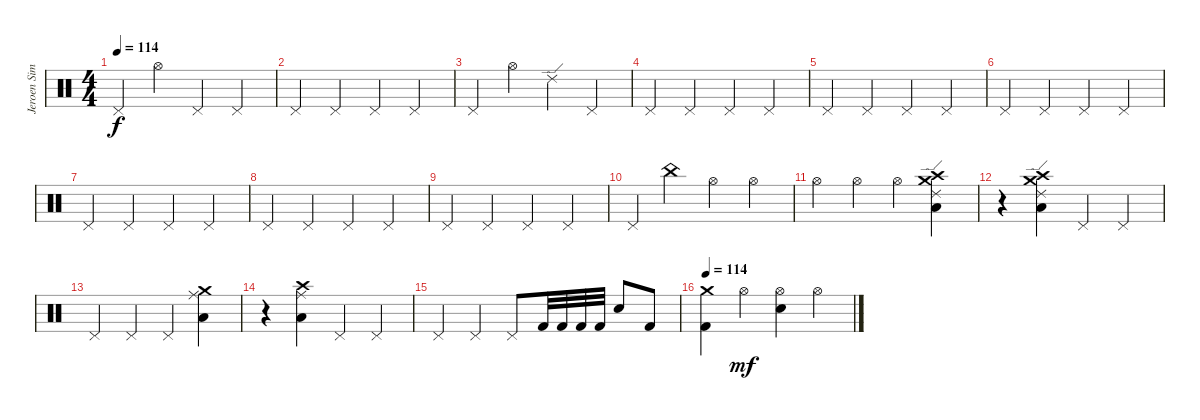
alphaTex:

\track ("Jeroen Simons" "Jeroen Sim") {instrument percussion}
\staff {score}
\articulation defaults
\ts (4 4)
\tempo 114
\clef neutral
\ks c "Pedal Hi-Hat (hit)".4{dy f} "Hi-Hat (open)".4 "Pedal Hi-Hat (hit)".4 "Pedal Hi-Hat (hit)".4
|
"Pedal Hi-Hat (hit)".4 "Pedal Hi-Hat (hit)".4 "Pedal Hi-Hat (hit)".4 "Pedal Hi-Hat (hit)".4 |
"Pedal Hi-Hat (hit)".4 "Hi-Hat (open)".4 "Ride (edge) 2".4 "Pedal Hi-Hat (hit)".4 |
"Pedal Hi-Hat (hit)".4 "Pedal Hi-Hat (hit)".4 "Pedal Hi-Hat (hit)".4 "Pedal Hi-Hat (hit)".4 |
"Pedal Hi-Hat (hit)".4 "Pedal Hi-Hat (hit)".4 "Pedal Hi-Hat (hit)".4 "Pedal Hi-Hat (hit)".4 |
"Pedal Hi-Hat (hit)".4 "Pedal Hi-Hat (hit)".4 "Pedal Hi-Hat (hit)".4 "Pedal Hi-Hat (hit)".4 |
"Pedal Hi-Hat (hit)".4 "Pedal Hi-Hat (hit)".4 "Pedal Hi-Hat (hit)".4 "Pedal Hi-Hat (hit)".4 |
"Pedal Hi-Hat (hit)".4 "Pedal Hi-Hat (hit)".4 "Pedal Hi-Hat (hit)".4 "Pedal Hi-Hat (hit)".4 |
"Pedal Hi-Hat (hit)".4 "Pedal Hi-Hat (hit)".4 "Pedal Hi-Hat (hit)".4 "Pedal Hi-Hat (hit)".4 |
"Pedal Hi-Hat (hit)".4 "China (hit)".4 "Hi-Hat (open)".4 "Hi-Hat (open)".4 |
"Hi-Hat (open)".4 "Hi-Hat (open)".4 "Hi-Hat (open)".4 ("Low Floor Tom (hit)" "Crash medium (hit)" "Crash high (hit)" "Ride (edge) 2").4 |
r.4 ("Low Floor Tom (hit)" "Crash medium (hit)" "Crash high (hit)" "Ride (edge) 2").4 "Pedal Hi-Hat (hit)".4 "Pedal Hi-Hat (hit)".4 |
"Pedal Hi-Hat (hit)".4 "Pedal Hi-Hat (hit)".4 "Pedal Hi-Hat (hit)".4 ("Low Floor Tom (hit)" "Ride (middle)" "Crash medium (hit)").4 |
r.4 ("Low Floor Tom (hit)" "Ride (middle)" "Crash high (hit)").4 "Pedal Hi-Hat (hit)".4 "Pedal Hi-Hat (hit)".4 |
"Pedal Hi-Hat (hit)".4 "Pedal Hi-Hat (hit)".4 "Pedal Hi-Hat (hit)".8 "Kick (hit) 2".32 "Kick (hit) 2".32 "Kick (hit) 2".32 "Kick (hit) 2".32 "Electric Snare (hit)".8 "Kick (hit) 2".8 |
\tempo 114
("Crash medium (hit)" "Kick (hit) 2").4 "Hi-Hat (open)".4{dy mf} ("Hi-Hat (open)" "Electric Snare (hit)").4 "Hi-Hat (open)".4
